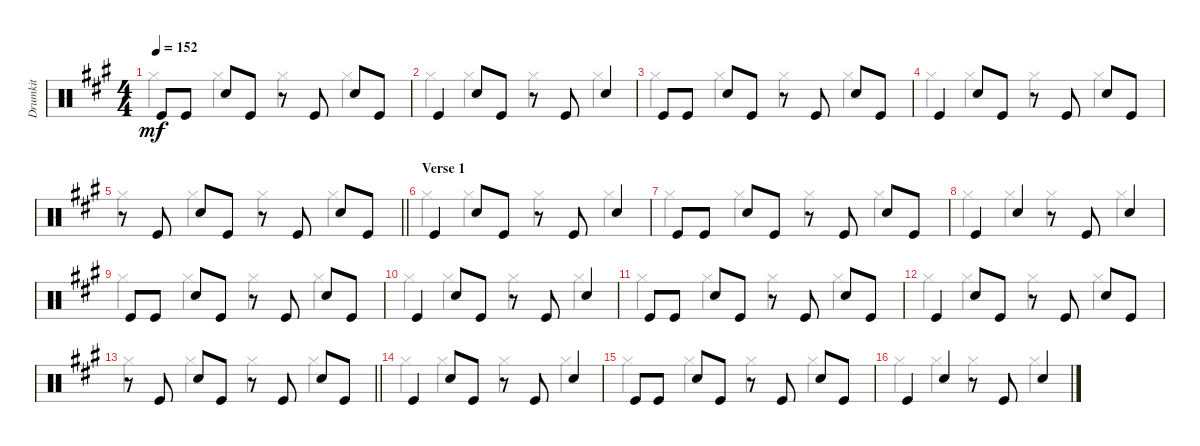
\track ("Drumkit" "Drumkit") {instrument percussion}
\staff {score}
\articulation defaults
\voice
\ts (4 4)
\tempo 152
\clef neutral
\ks a "Kick (hit)".8{dy mf} "Kick (hit)".8 "Snare (hit) 2".8 "Kick (hit)".8
r.8 "Kick (hit)".8 "Snare (hit) 2".8 "Kick (hit)".8 |
"Kick (hit)".4 "Snare (hit) 2".8 "Kick (hit)".8 r.8 "Kick (hit)".8 "Snare (hit) 2".4 |
"Kick (hit)".8 "Kick (hit)".8 "Snare (hit) 2".8 "Kick (hit)".8 r.8 "Kick (hit)".8 "Snare (hit) 2".8 "Kick (hit)".8 |
"Kick (hit)".4 "Snare (hit) 2".8 "Kick (hit)".8 r.8 "Kick (hit)".8 "Snare (hit) 2".8 "Kick (hit)".8 |
\barLineRight lightlight
r.8 "Kick (hit)".8 "Snare (hit) 2".8 "Kick (hit)".8 r.8 "Kick (hit)".8 "Snare (hit) 2".8 "Kick (hit)".8 |
\section ("" "Verse 1")
"Kick (hit)".4 "Snare (hit) 2".8 "Kick (hit)".8 r.8 "Kick (hit)".8 "Snare (hit) 2".4 |
"Kick (hit)".8 "Kick (hit)".8 "Snare (hit) 2".8 "Kick (hit)".8 r.8 "Kick (hit)".8 "Snare (hit) 2".8 "Kick (hit)".8 |
"Kick (hit)".4 "Snare (hit) 2".4 r.8 "Kick (hit)".8 "Snare (hit) 2".4 |
"Kick (hit)".8 "Kick (hit)".8 "Snare (hit) 2".8 "Kick (hit)".8 r.8 "Kick (hit)".8 "Snare (hit) 2".8 "Kick (hit)".8 |
"Kick (hit)".4 "Snare (hit) 2".8 "Kick (hit)".8 r.8 "Kick (hit)".8 "Snare (hit) 2".4 |
"Kick (hit)".8 "Kick (hit)".8 "Snare (hit) 2".8 "Kick (hit)".8 r.8 "Kick (hit)".8 "Snare (hit) 2".8 "Kick (hit)".8 |
"Kick (hit)".4 "Snare (hit) 2".8 "Kick (hit)".8 r.8 "Kick (hit)".8 "Snare (hit) 2".8 "Kick (hit)".8 |
\barLineRight lightlight
r.8 "Kick (hit)".8 "Snare (hit) 2".8 "Kick (hit)".8 r.8 "Kick (hit)".8 "Snare (hit) 2".8 "Kick (hit)".8 |
"Kick (hit)".4 "Snare (hit) 2".8 "Kick (hit)".8 r.8 "Kick (hit)".8 "Snare (hit) 2".4 |
"Kick (hit)".8 "Kick (hit)".8 "Snare (hit) 2".8 "Kick (hit)".8 r.8 "Kick (hit)".8 "Snare (hit) 2".8 "Kick (hit)".8 |
"Kick (hit)".4 "Snare (hit) 2".4 r.8 "Kick (hit)".8 "Snare (hit) 2".4
\voice
\clef neutral
\ottava regular
\simile none
\ks a "Hi-Hat (closed)".4{dy mf} "Hi-Hat (closed)".4 "Hi-Hat (closed)".4 "Hi-Hat (closed)".4
|
"Hi-Hat (closed)".4 "Hi-Hat (closed)".4 "Hi-Hat (closed)".4 "Hi-Hat (closed)".4 |
"Hi-Hat (closed)".4 "Hi-Hat (closed)".4 "Hi-Hat (closed)".4 "Hi-Hat (closed)".4 |
"Hi-Hat (closed)".4 "Hi-Hat (closed)".4 "Hi-Hat (closed)".4 "Hi-Hat (closed)".4 |
\barLineRight lightlight "Hi-Hat (closed)".4 "Hi-Hat (closed)".4 "Hi-Hat (closed)".4 "Hi-Hat (closed)".4
|
"Hi-Hat (closed)".4 "Hi-Hat (closed)".4 "Hi-Hat (closed)".4 "Hi-Hat (closed)".4 |
"Hi-Hat (closed)".4 "Hi-Hat (closed)".4 "Hi-Hat (closed)".4 "Hi-Hat (closed)".4 |
"Hi-Hat (closed)".4 "Hi-Hat (closed)".4 "Hi-Hat (closed)".4 "Hi-Hat (closed)".4 |
"Hi-Hat (closed)".4 "Hi-Hat (closed)".4 "Hi-Hat (closed)".4 "Hi-Hat (closed)".4 |
"Hi-Hat (closed)".4 "Hi-Hat (closed)".4 "Hi-Hat (closed)".4 "Hi-Hat (closed)".4 |
"Hi-Hat (closed)".4 "Hi-Hat (closed)".4 "Hi-Hat (closed)".4 "Hi-Hat (closed)".4 |
"Hi-Hat (closed)".4 "Hi-Hat (closed)".4 "Hi-Hat (closed)".4 "Hi-Hat (closed)".4 |
\barLineRight lightlight "Hi-Hat (closed)".4 "Hi-Hat (closed)".4 "Hi-Hat (closed)".4 "Hi-Hat (closed)".4
|
"Hi-Hat (closed)".4 "Hi-Hat (closed)".4 "Hi-Hat (closed)".4 "Hi-Hat (closed)".4 |
"Hi-Hat (closed)".4 "Hi-Hat (closed)".4 "Hi-Hat (closed)".4 "Hi-Hat (closed)".4 |
"Hi-Hat (closed)".4 "Hi-Hat (closed)".4 "Hi-Hat (closed)".4 "Hi-Hat (closed)".4
